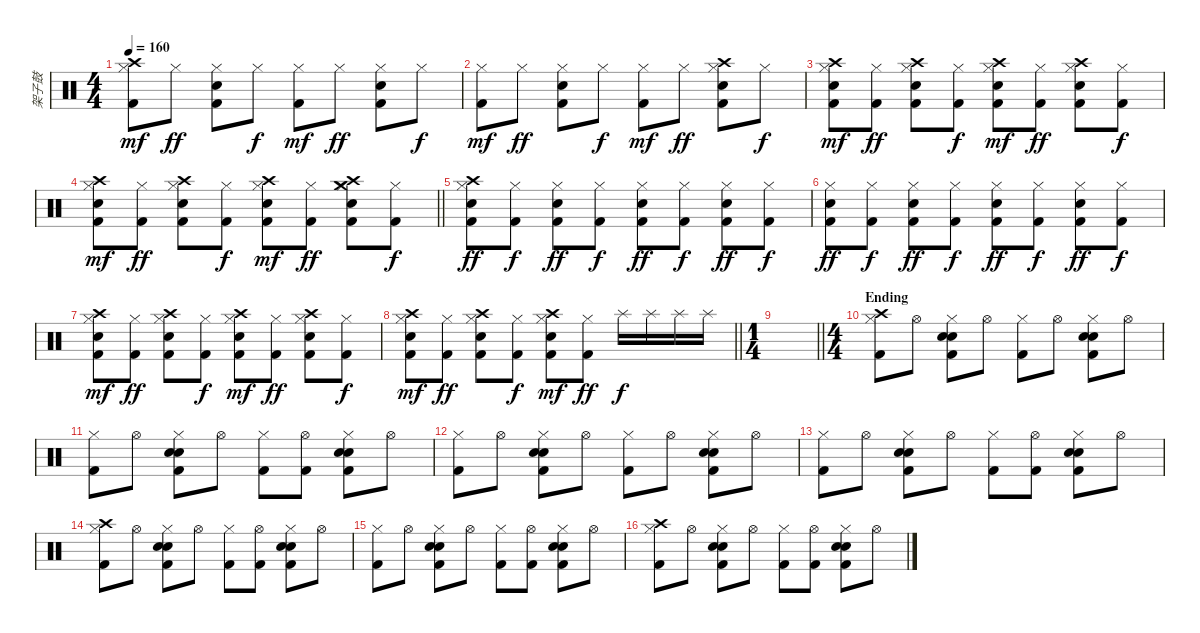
\track ("架子鼓" "架子鼓") {instrument percussion}
\staff {score}
\articulation defaults
\ts (4 4)
\tempo 160
\clef neutral
\ks c
("Hi-Hat (closed)" "Crash high (hit)" "Kick (hit) 2").8{dy mf} "Hi-Hat (closed)".8{dy ff} ("Hi-Hat (closed)" "Electric Snare (hit)" "Kick (hit) 2").8 "Hi-Hat (closed)".8{dy f} ("Hi-Hat (closed)" "Kick (hit) 2").8{dy mf} "Hi-Hat (closed)".8{dy ff} ("Hi-Hat (closed)" "Electric Snare (hit)" "Kick (hit) 2").8 "Hi-Hat (closed)".8{dy f} |
("Hi-Hat (closed)" "Kick (hit) 2").8{dy mf} "Hi-Hat (closed)".8{dy ff} ("Hi-Hat (closed)" "Electric Snare (hit)" "Kick (hit) 2").8 "Hi-Hat (closed)".8{dy f} ("Hi-Hat (closed)" "Kick (hit) 2").8{dy mf} "Hi-Hat (closed)".8{dy ff} ("Hi-Hat (closed)" "Electric Snare (hit)" "Crash high (hit)" "Kick (hit) 2").8 "Hi-Hat (closed)".8{dy f} |
("Hi-Hat (closed)" "Electric Snare (hit)" "Crash high (hit)" "Kick (hit) 2").8{dy mf} ("Hi-Hat (closed)" "Kick (hit) 2").8{dy ff} ("Hi-Hat (closed)" "Electric Snare (hit)" "Crash high (hit)" "Kick (hit) 2").8 ("Hi-Hat (closed)" "Kick (hit) 2").8{dy f} ("Hi-Hat (closed)" "Electric Snare (hit)" "Crash high (hit)" "Kick (hit) 2").8{dy mf} ("Hi-Hat (closed)" "Kick (hit) 2").8{dy ff} ("Hi-Hat (closed)" "Electric Snare (hit)" "Crash high (hit)" "Kick (hit) 2").8 ("Hi-Hat (closed)" "Kick (hit) 2").8{dy f} |
\barLineRight lightlight
("Hi-Hat (closed)" "Electric Snare (hit)" "Crash high (hit)" "Kick (hit) 2").8{dy mf} ("Hi-Hat (closed)" "Kick (hit) 2").8{dy ff} ("Hi-Hat (closed)" "Electric Snare (hit)" "Crash high (hit)" "Kick (hit) 2").8 ("Hi-Hat (closed)" "Kick (hit) 2").8{dy f} ("Hi-Hat (closed)" "Electric Snare (hit)" "Crash high (hit)" "Kick (hit) 2").8{dy mf} ("Hi-Hat (closed)" "Kick (hit) 2").8{dy ff} ("Hi-Hat (closed)" "Electric Snare (hit)" "Crash high (hit)" "Crash medium (hit)" "Kick (hit) 2").8 ("Hi-Hat (closed)" "Kick (hit) 2").8{dy f} |
("Hi-Hat (closed)" "Electric Snare (hit)" "Crash high (hit)" "Kick (hit) 2").8{dy ff} ("Hi-Hat (closed)" "Kick (hit) 2").8{dy f} ("Hi-Hat (closed)" "Electric Snare (hit)" "Kick (hit) 2").8{dy ff} ("Hi-Hat (closed)" "Kick (hit) 2").8{dy f} ("Hi-Hat (closed)" "Electric Snare (hit)" "Kick (hit) 2").8{dy ff} ("Hi-Hat (closed)" "Kick (hit) 2").8{dy f} ("Hi-Hat (closed)" "Electric Snare (hit)" "Kick (hit) 2").8{dy ff} ("Hi-Hat (closed)" "Kick (hit) 2").8{dy f} |
("Hi-Hat (closed)" "Electric Snare (hit)" "Kick (hit) 2").8{dy ff} ("Hi-Hat (closed)" "Kick (hit) 2").8{dy f} ("Hi-Hat (closed)" "Electric Snare (hit)" "Kick (hit) 2").8{dy ff} ("Hi-Hat (closed)" "Kick (hit) 2").8{dy f} ("Hi-Hat (closed)" "Electric Snare (hit)" "Kick (hit) 2").8{dy ff} ("Hi-Hat (closed)" "Kick (hit) 2").8{dy f} ("Hi-Hat (closed)" "Electric Snare (hit)" "Kick (hit) 2").8{dy ff} ("Hi-Hat (closed)" "Kick (hit) 2").8{dy f} |
("Hi-Hat (closed)" "Electric Snare (hit)" "Crash high (hit)" "Kick (hit) 2").8{dy mf} ("Hi-Hat (closed)" "Kick (hit) 2").8{dy ff} ("Hi-Hat (closed)" "Electric Snare (hit)" "Crash high (hit)" "Kick (hit) 2").8 ("Hi-Hat (closed)" "Kick (hit) 2").8{dy f} ("Hi-Hat (closed)" "Electric Snare (hit)" "Crash high (hit)" "Kick (hit) 2").8{dy mf} ("Hi-Hat (closed)" "Kick (hit) 2").8{dy ff} ("Hi-Hat (closed)" "Electric Snare (hit)" "Crash high (hit)" "Kick (hit) 2").8 ("Hi-Hat (closed)" "Kick (hit) 2").8{dy f} |
\barLineRight lightlight
("Hi-Hat (closed)" "Electric Snare (hit)" "Crash high (hit)" "Kick (hit) 2").8{dy mf} ("Hi-Hat (closed)" "Kick (hit) 2").8{dy ff} ("Hi-Hat (closed)" "Electric Snare (hit)" "Crash high (hit)" "Kick (hit) 2").8 ("Hi-Hat (closed)" "Kick (hit) 2").8{dy f} ("Hi-Hat (closed)" "Electric Snare (hit)" "Crash high (hit)" "Kick (hit) 2").8{dy mf} ("Hi-Hat (closed)" "Kick (hit) 2").8{dy ff} "Splash (hit)".16{dy f} "Splash (hit)".16 "Splash (hit)".16 "Splash (hit)".16 |
\ts (1 4)
\barLineRight lightlight
|
\ts (4 4)
\section ("" "Ending")
("Hi-Hat (closed)" "Crash high (hit)" "Kick (hit) 2").8 "Hi-Hat (open)".8 ("Hi-Hat (closed)" "Electric Snare (hit)" "Hand Clap (hit)" "Kick (hit) 2").8 "Hi-Hat (open)".8 ("Hi-Hat (closed)" "Kick (hit) 2").8 "Hi-Hat (open)".8 ("Hi-Hat (closed)" "Electric Snare (hit)" "Hand Clap (hit)" "Kick (hit) 2").8 "Hi-Hat (open)".8 |
("Hi-Hat (closed)" "Kick (hit) 2").8 "Hi-Hat (open)".8 ("Hi-Hat (closed)" "Electric Snare (hit)" "Hand Clap (hit)" "Kick (hit) 2").8 "Hi-Hat (open)".8 ("Hi-Hat (closed)" "Kick (hit) 2").8 ("Hi-Hat (open)" "Kick (hit) 2").8 ("Hi-Hat (closed)" "Electric Snare (hit)" "Hand Clap (hit)" "Kick (hit) 2").8 "Hi-Hat (open)".8 |
("Hi-Hat (closed)" "Kick (hit) 2").8 "Hi-Hat (open)".8 ("Hi-Hat (closed)" "Electric Snare (hit)" "Hand Clap (hit)" "Kick (hit) 2").8 "Hi-Hat (open)".8 ("Hi-Hat (closed)" "Kick (hit) 2").8 "Hi-Hat (open)".8 ("Hi-Hat (closed)" "Electric Snare (hit)" "Hand Clap (hit)" "Kick (hit) 2").8 "Hi-Hat (open)".8 |
("Hi-Hat (closed)" "Kick (hit) 2").8 "Hi-Hat (open)".8 ("Hi-Hat (closed)" "Electric Snare (hit)" "Hand Clap (hit)" "Kick (hit) 2").8 "Hi-Hat (open)".8 ("Hi-Hat (closed)" "Kick (hit) 2").8 ("Hi-Hat (open)" "Kick (hit) 2").8 ("Hi-Hat (closed)" "Electric Snare (hit)" "Hand Clap (hit)" "Kick (hit) 2").8 "Hi-Hat (open)".8 |
("Hi-Hat (closed)" "Crash high (hit)" "Kick (hit) 2").8 "Hi-Hat (open)".8 ("Hi-Hat (closed)" "Electric Snare (hit)" "Hand Clap (hit)" "Kick (hit) 2").8 "Hi-Hat (open)".8 ("Hi-Hat (closed)" "Kick (hit) 2").8 ("Hi-Hat (open)" "Kick (hit) 2").8 ("Hi-Hat (closed)" "Electric Snare (hit)" "Hand Clap (hit)" "Kick (hit) 2").8 "Hi-Hat (open)".8 |
("Hi-Hat (closed)" "Kick (hit) 2").8 "Hi-Hat (open)".8 ("Hi-Hat (closed)" "Electric Snare (hit)" "Hand Clap (hit)" "Kick (hit) 2").8 "Hi-Hat (open)".8 ("Hi-Hat (closed)" "Kick (hit) 2").8 ("Hi-Hat (open)" "Kick (hit) 2").8 ("Hi-Hat (closed)" "Electric Snare (hit)" "Hand Clap (hit)" "Kick (hit) 2").8 "Hi-Hat (open)".8 |
("Hi-Hat (closed)" "Crash high (hit)" "Kick (hit) 2").8 "Hi-Hat (open)".8 ("Hi-Hat (closed)" "Electric Snare (hit)" "Hand Clap (hit)" "Kick (hit) 2").8 "Hi-Hat (open)".8 ("Hi-Hat (closed)" "Kick (hit) 2").8 ("Hi-Hat (open)" "Kick (hit) 2").8 ("Hi-Hat (closed)" "Electric Snare (hit)" "Hand Clap (hit)" "Kick (hit) 2").8 "Hi-Hat (open)".8
